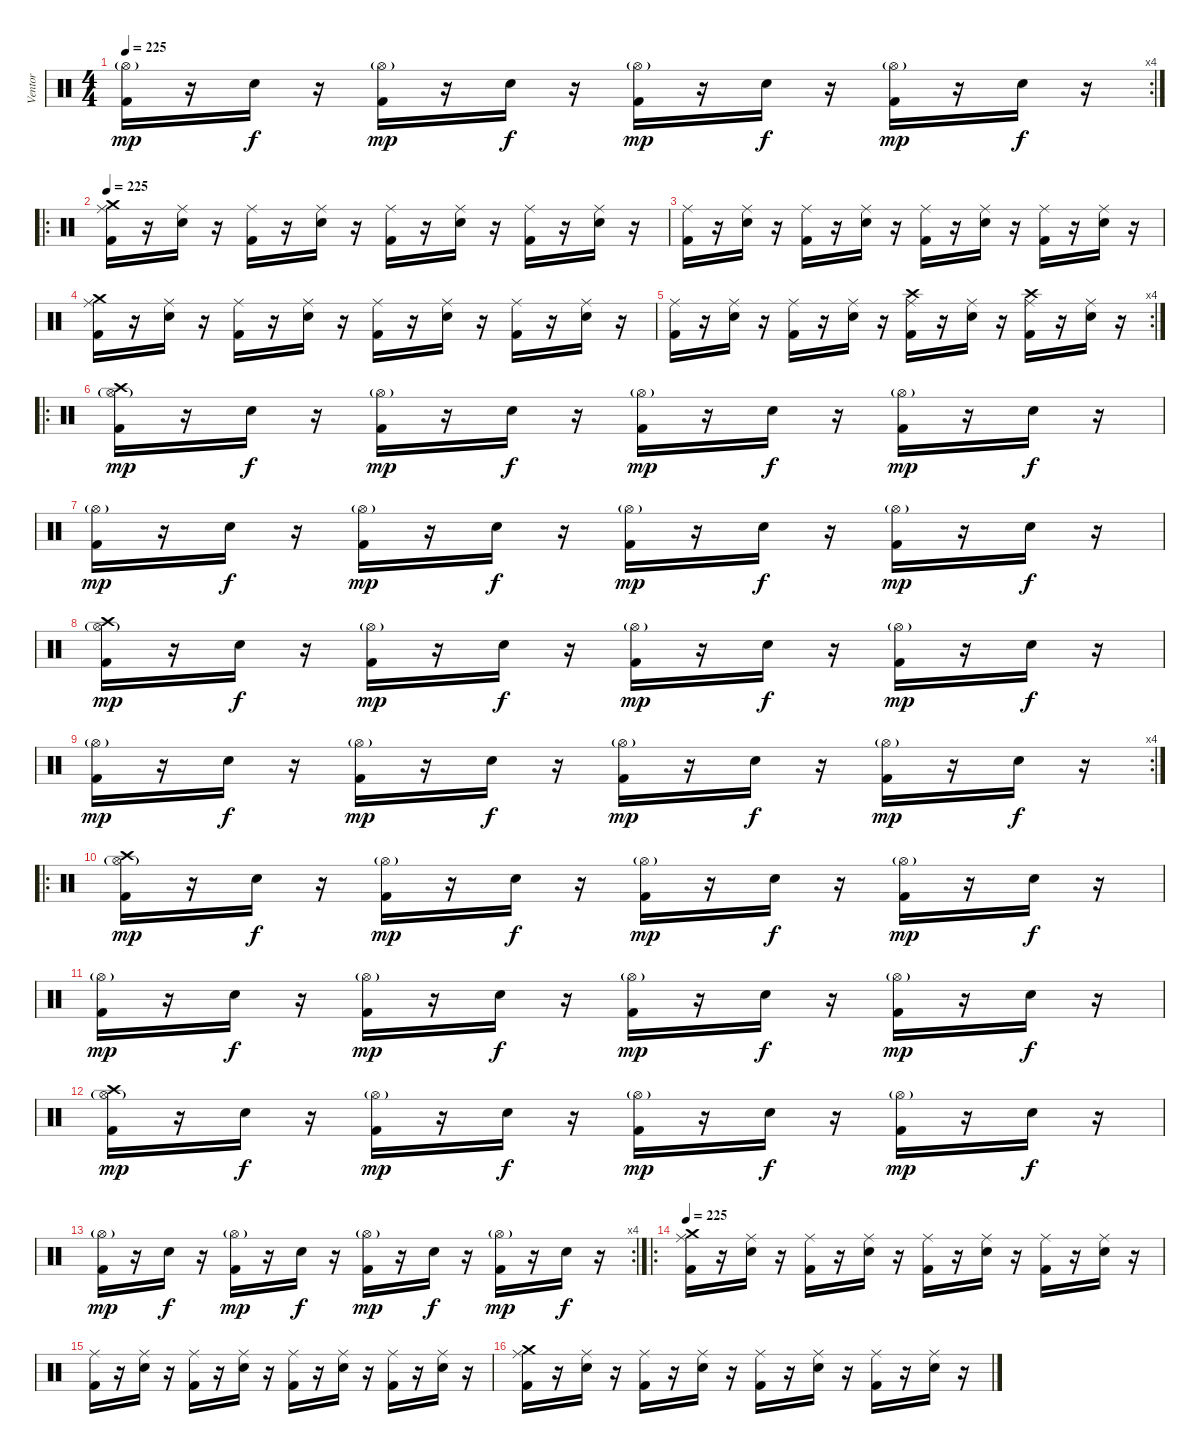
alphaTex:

\track ("Ventor" "Ventor") {instrument percussion}
\staff {score}
\articulation defaults
\rc 4
\ts (4 4)
\tempo 225
\clef neutral
\ks c
("Hi-Hat (open)"{g} "Kick (hit) 2").16{dy mp} r.16 "Snare (hit) 2".16{dy f} r.16 ("Hi-Hat (open)"{g} "Kick (hit) 2").16{dy mp} r.16 "Snare (hit) 2".16{dy f} r.16 ("Hi-Hat (open)"{g} "Kick (hit) 2").16{dy mp} r.16 "Snare (hit) 2".16{dy f} r.16 ("Hi-Hat (open)"{g} "Kick (hit) 2").16{dy mp} r.16 "Snare (hit) 2".16{dy f} r.16 |
\ro
\tempo 225
("Crash medium (hit)" "Ride (middle)" "Kick (hit) 2").16 r.16 ("Ride (middle)" "Snare (hit) 2").16 r.16 ("Ride (middle)" "Kick (hit) 2").16 r.16 ("Ride (middle)" "Snare (hit) 2").16 r.16 ("Ride (middle)" "Kick (hit) 2").16 r.16 ("Ride (middle)" "Snare (hit) 2").16 r.16 ("Ride (middle)" "Kick (hit) 2").16 r.16 ("Ride (middle)" "Snare (hit) 2").16 r.16 |
("Ride (middle)" "Kick (hit) 2").16 r.16 ("Ride (middle)" "Snare (hit) 2").16 r.16 ("Ride (middle)" "Kick (hit) 2").16 r.16 ("Ride (middle)" "Snare (hit) 2").16 r.16 ("Ride (middle)" "Kick (hit) 2").16 r.16 ("Ride (middle)" "Snare (hit) 2").16 r.16 ("Ride (middle)" "Kick (hit) 2").16 r.16 ("Ride (middle)" "Snare (hit) 2").16 r.16 |
("Crash medium (hit)" "Ride (middle)" "Kick (hit) 2").16 r.16 ("Ride (middle)" "Snare (hit) 2").16 r.16 ("Ride (middle)" "Kick (hit) 2").16 r.16 ("Ride (middle)" "Snare (hit) 2").16 r.16 ("Ride (middle)" "Kick (hit) 2").16 r.16 ("Ride (middle)" "Snare (hit) 2").16 r.16 ("Ride (middle)" "Kick (hit) 2").16 r.16 ("Ride (middle)" "Snare (hit) 2").16 r.16 |
\rc 4
("Ride (middle)" "Kick (hit) 2").16 r.16 ("Ride (middle)" "Snare (hit) 2").16 r.16 ("Ride (middle)" "Kick (hit) 2").16 r.16 ("Ride (middle)" "Snare (hit) 2").16 r.16 ("Crash high (hit)" "Ride (middle)" "Kick (hit) 2").16 r.16 ("Ride (middle)" "Snare (hit) 2").16 r.16 ("Crash high (hit)" "Ride (middle)" "Kick (hit) 2").16 r.16 ("Ride (middle)" "Snare (hit) 2").16 r.16 |
\ro
("Crash high (hit)" "Hi-Hat (open)"{g} "Kick (hit) 2").16{dy mp} r.16 "Snare (hit) 2".16{dy f} r.16 ("Hi-Hat (open)"{g} "Kick (hit) 2").16{dy mp} r.16 "Snare (hit) 2".16{dy f} r.16 ("Hi-Hat (open)"{g} "Kick (hit) 2").16{dy mp} r.16 "Snare (hit) 2".16{dy f} r.16 ("Hi-Hat (open)"{g} "Kick (hit) 2").16{dy mp} r.16 "Snare (hit) 2".16{dy f} r.16 |
("Hi-Hat (open)"{g} "Kick (hit) 2").16{dy mp} r.16 "Snare (hit) 2".16{dy f} r.16 ("Hi-Hat (open)"{g} "Kick (hit) 2").16{dy mp} r.16 "Snare (hit) 2".16{dy f} r.16 ("Hi-Hat (open)"{g} "Kick (hit) 2").16{dy mp} r.16 "Snare (hit) 2".16{dy f} r.16 ("Hi-Hat (open)"{g} "Kick (hit) 2").16{dy mp} r.16 "Snare (hit) 2".16{dy f} r.16 |
("Crash high (hit)" "Hi-Hat (open)"{g} "Kick (hit) 2").16{dy mp} r.16 "Snare (hit) 2".16{dy f} r.16 ("Hi-Hat (open)"{g} "Kick (hit) 2").16{dy mp} r.16 "Snare (hit) 2".16{dy f} r.16 ("Hi-Hat (open)"{g} "Kick (hit) 2").16{dy mp} r.16 "Snare (hit) 2".16{dy f} r.16 ("Hi-Hat (open)"{g} "Kick (hit) 2").16{dy mp} r.16 "Snare (hit) 2".16{dy f} r.16 |
\rc 4
("Hi-Hat (open)"{g} "Kick (hit) 2").16{dy mp} r.16 "Snare (hit) 2".16{dy f} r.16 ("Hi-Hat (open)"{g} "Kick (hit) 2").16{dy mp} r.16 "Snare (hit) 2".16{dy f} r.16 ("Hi-Hat (open)"{g} "Kick (hit) 2").16{dy mp} r.16 "Snare (hit) 2".16{dy f} r.16 ("Hi-Hat (open)"{g} "Kick (hit) 2").16{dy mp} r.16 "Snare (hit) 2".16{dy f} r.16 |
\ro
("Crash high (hit)" "Hi-Hat (open)"{g} "Kick (hit) 2").16{dy mp} r.16 "Snare (hit) 2".16{dy f} r.16 ("Hi-Hat (open)"{g} "Kick (hit) 2").16{dy mp} r.16 "Snare (hit) 2".16{dy f} r.16 ("Hi-Hat (open)"{g} "Kick (hit) 2").16{dy mp} r.16 "Snare (hit) 2".16{dy f} r.16 ("Hi-Hat (open)"{g} "Kick (hit) 2").16{dy mp} r.16 "Snare (hit) 2".16{dy f} r.16 |
("Hi-Hat (open)"{g} "Kick (hit) 2").16{dy mp} r.16 "Snare (hit) 2".16{dy f} r.16 ("Hi-Hat (open)"{g} "Kick (hit) 2").16{dy mp} r.16 "Snare (hit) 2".16{dy f} r.16 ("Hi-Hat (open)"{g} "Kick (hit) 2").16{dy mp} r.16 "Snare (hit) 2".16{dy f} r.16 ("Hi-Hat (open)"{g} "Kick (hit) 2").16{dy mp} r.16 "Snare (hit) 2".16{dy f} r.16 |
("Crash high (hit)" "Hi-Hat (open)"{g} "Kick (hit) 2").16{dy mp} r.16 "Snare (hit) 2".16{dy f} r.16 ("Hi-Hat (open)"{g} "Kick (hit) 2").16{dy mp} r.16 "Snare (hit) 2".16{dy f} r.16 ("Hi-Hat (open)"{g} "Kick (hit) 2").16{dy mp} r.16 "Snare (hit) 2".16{dy f} r.16 ("Hi-Hat (open)"{g} "Kick (hit) 2").16{dy mp} r.16 "Snare (hit) 2".16{dy f} r.16 |
\rc 4
("Hi-Hat (open)"{g} "Kick (hit) 2").16{dy mp} r.16 "Snare (hit) 2".16{dy f} r.16 ("Hi-Hat (open)"{g} "Kick (hit) 2").16{dy mp} r.16 "Snare (hit) 2".16{dy f} r.16 ("Hi-Hat (open)"{g} "Kick (hit) 2").16{dy mp} r.16 "Snare (hit) 2".16{dy f} r.16 ("Hi-Hat (open)"{g} "Kick (hit) 2").16{dy mp} r.16 "Snare (hit) 2".16{dy f} r.16 |
\ro
\tempo 225
("Crash medium (hit)" "Ride (middle)" "Kick (hit) 2").16 r.16 ("Ride (middle)" "Snare (hit) 2").16 r.16 ("Ride (middle)" "Kick (hit) 2").16 r.16 ("Ride (middle)" "Snare (hit) 2").16 r.16 ("Ride (middle)" "Kick (hit) 2").16 r.16 ("Ride (middle)" "Snare (hit) 2").16 r.16 ("Ride (middle)" "Kick (hit) 2").16 r.16 ("Ride (middle)" "Snare (hit) 2").16 r.16 |
("Ride (middle)" "Kick (hit) 2").16 r.16 ("Ride (middle)" "Snare (hit) 2").16 r.16 ("Ride (middle)" "Kick (hit) 2").16 r.16 ("Ride (middle)" "Snare (hit) 2").16 r.16 ("Ride (middle)" "Kick (hit) 2").16 r.16 ("Ride (middle)" "Snare (hit) 2").16 r.16 ("Ride (middle)" "Kick (hit) 2").16 r.16 ("Ride (middle)" "Snare (hit) 2").16 r.16 |
("Crash medium (hit)" "Ride (middle)" "Kick (hit) 2").16 r.16 ("Ride (middle)" "Snare (hit) 2").16 r.16 ("Ride (middle)" "Kick (hit) 2").16 r.16 ("Ride (middle)" "Snare (hit) 2").16 r.16 ("Ride (middle)" "Kick (hit) 2").16 r.16 ("Ride (middle)" "Snare (hit) 2").16 r.16 ("Ride (middle)" "Kick (hit) 2").16 r.16 ("Ride (middle)" "Snare (hit) 2").16 r.16
